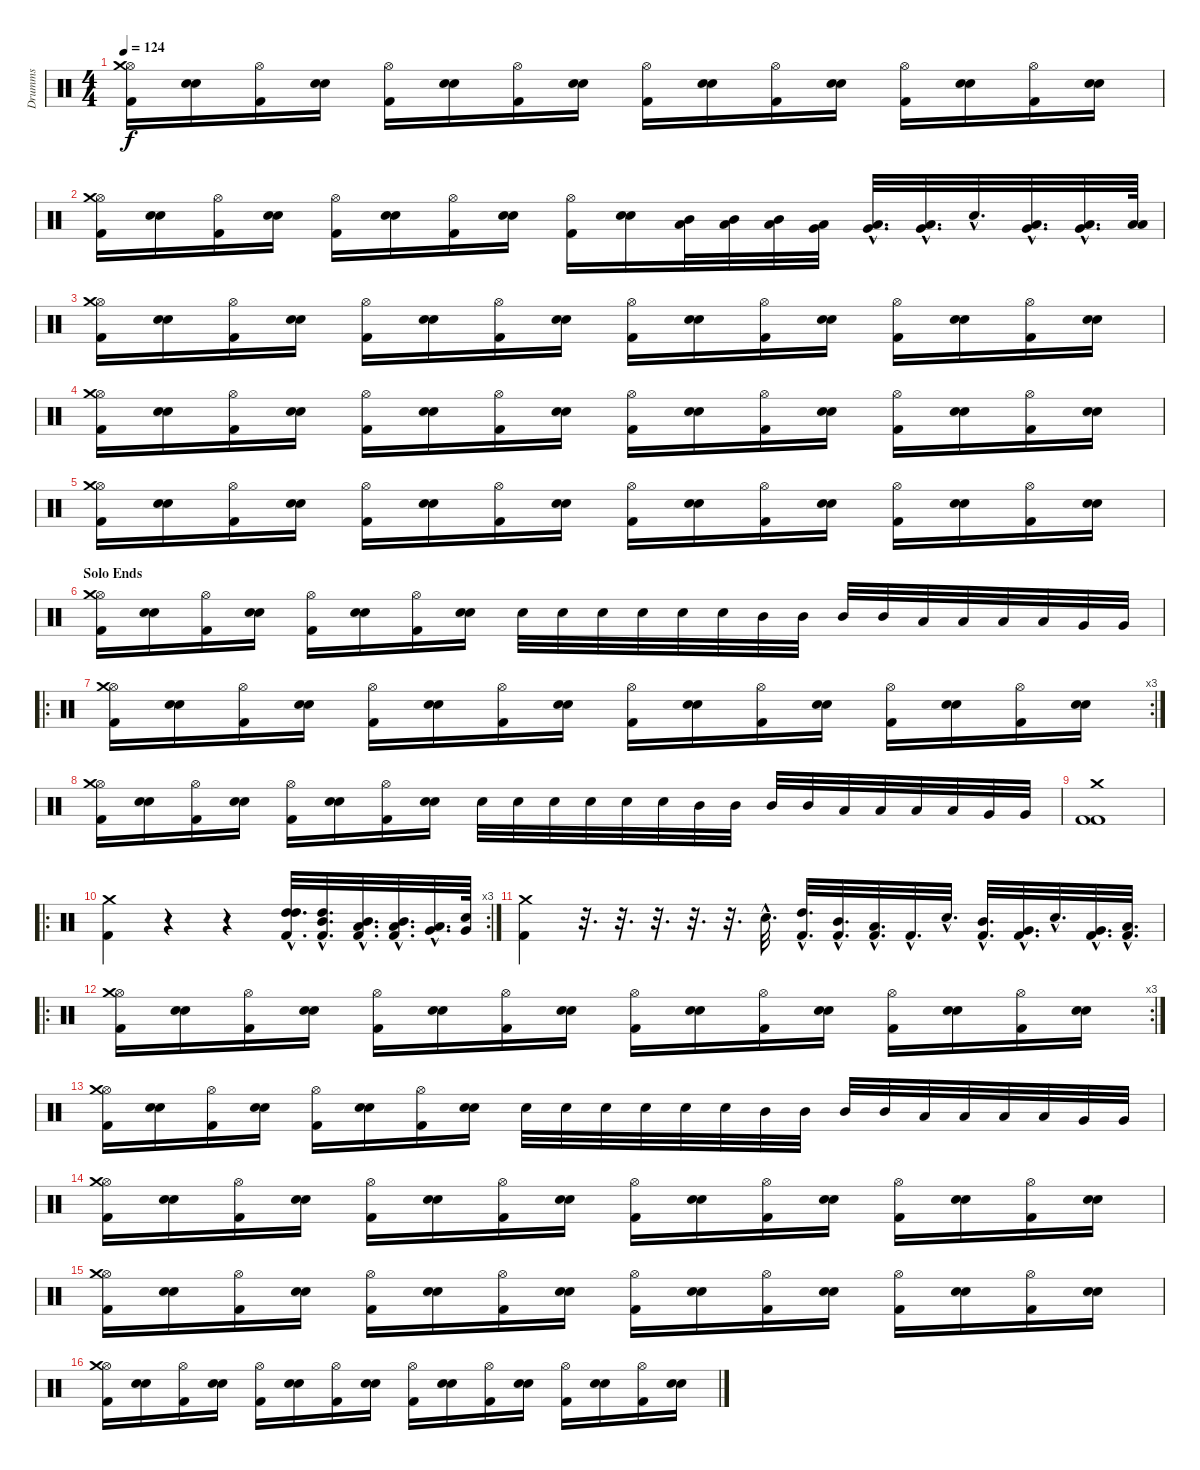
\track ("Drumms" "Drumms") {instrument percussion}
\staff {score}
\articulation defaults
\ts (4 4)
\tempo 124
\clef neutral
\ks c
("Kick (hit) 2" "Hi-Hat (open)" "Crash medium (hit)").16{dy f} ("Snare (hit) 2" "Snare (hit) 2").16 ("Kick (hit) 2" "Hi-Hat (open)").16 ("Snare (hit) 2" "Snare (hit) 2").16 ("Kick (hit) 2" "Hi-Hat (open)").16 ("Snare (hit) 2" "Snare (hit) 2").16 ("Kick (hit) 2" "Hi-Hat (open)").16 ("Snare (hit) 2" "Snare (hit) 2").16 ("Kick (hit) 2" "Hi-Hat (open)").16 ("Snare (hit) 2" "Snare (hit) 2").16 ("Kick (hit) 2" "Hi-Hat (open)").16 ("Snare (hit) 2" "Snare (hit) 2").16 ("Kick (hit) 2" "Hi-Hat (open)").16 ("Snare (hit) 2" "Snare (hit) 2").16 ("Kick (hit) 2" "Hi-Hat (open)").16 ("Snare (hit) 2" "Snare (hit) 2").16 |
("Kick (hit) 2" "Hi-Hat (open)" "Crash medium (hit)").16 ("Snare (hit) 2" "Snare (hit) 2").16 ("Kick (hit) 2" "Hi-Hat (open)").16 ("Snare (hit) 2" "Snare (hit) 2").16 ("Kick (hit) 2" "Hi-Hat (open)").16 ("Snare (hit) 2" "Snare (hit) 2").16 ("Kick (hit) 2" "Hi-Hat (open)").16 ("Snare (hit) 2" "Snare (hit) 2").16 ("Kick (hit) 2" "Hi-Hat (open)").16 ("Snare (hit) 2" "Snare (hit) 2").16 ("Mid Tom (hit)" "Low Tom (hit)").32 ("Mid Tom (hit)" "Low Tom (hit)").32 ("Mid Tom (hit)" "Low Tom (hit)").32 ("Low Tom (hit)" "Very Low Tom (hit)").32 ("Low Tom (hit)"{hac} "Very Low Tom (hit)"{hac}).32{d} ("Low Tom (hit)"{hac} "Very Low Tom (hit)"{hac}).32{d} "Snare (hit) 2"{hac}.32{d} ("Very Low Tom (hit)"{hac} "Low Floor Tom (hit)"{hac}).32{d} ("Very Low Tom (hit)"{hac} "Low Floor Tom (hit)"{hac}).32{d} ("Low Floor Tom (hit)" "Low Floor Tom (hit)").64 |
("Kick (hit) 2" "Hi-Hat (open)" "Crash medium (hit)").16 ("Snare (hit) 2" "Snare (hit) 2").16 ("Kick (hit) 2" "Hi-Hat (open)").16 ("Snare (hit) 2" "Snare (hit) 2").16 ("Kick (hit) 2" "Hi-Hat (open)").16 ("Snare (hit) 2" "Snare (hit) 2").16 ("Kick (hit) 2" "Hi-Hat (open)").16 ("Snare (hit) 2" "Snare (hit) 2").16 ("Kick (hit) 2" "Hi-Hat (open)").16 ("Snare (hit) 2" "Snare (hit) 2").16 ("Kick (hit) 2" "Hi-Hat (open)").16 ("Snare (hit) 2" "Snare (hit) 2").16 ("Kick (hit) 2" "Hi-Hat (open)").16 ("Snare (hit) 2" "Snare (hit) 2").16 ("Kick (hit) 2" "Hi-Hat (open)").16 ("Snare (hit) 2" "Snare (hit) 2").16 |
("Kick (hit) 2" "Hi-Hat (open)" "Crash medium (hit)").16 ("Snare (hit) 2" "Snare (hit) 2").16 ("Kick (hit) 2" "Hi-Hat (open)").16 ("Snare (hit) 2" "Snare (hit) 2").16 ("Kick (hit) 2" "Hi-Hat (open)").16 ("Snare (hit) 2" "Snare (hit) 2").16 ("Kick (hit) 2" "Hi-Hat (open)").16 ("Snare (hit) 2" "Snare (hit) 2").16 ("Kick (hit) 2" "Hi-Hat (open)").16 ("Snare (hit) 2" "Snare (hit) 2").16 ("Kick (hit) 2" "Hi-Hat (open)").16 ("Snare (hit) 2" "Snare (hit) 2").16 ("Kick (hit) 2" "Hi-Hat (open)").16 ("Snare (hit) 2" "Snare (hit) 2").16 ("Kick (hit) 2" "Hi-Hat (open)").16 ("Snare (hit) 2" "Snare (hit) 2").16 |
("Kick (hit) 2" "Hi-Hat (open)" "Crash medium (hit)").16 ("Snare (hit) 2" "Snare (hit) 2").16 ("Kick (hit) 2" "Hi-Hat (open)").16 ("Snare (hit) 2" "Snare (hit) 2").16 ("Kick (hit) 2" "Hi-Hat (open)").16 ("Snare (hit) 2" "Snare (hit) 2").16 ("Kick (hit) 2" "Hi-Hat (open)").16 ("Snare (hit) 2" "Snare (hit) 2").16 ("Kick (hit) 2" "Hi-Hat (open)").16 ("Snare (hit) 2" "Snare (hit) 2").16 ("Kick (hit) 2" "Hi-Hat (open)").16 ("Snare (hit) 2" "Snare (hit) 2").16 ("Kick (hit) 2" "Hi-Hat (open)").16 ("Snare (hit) 2" "Snare (hit) 2").16 ("Kick (hit) 2" "Hi-Hat (open)").16 ("Snare (hit) 2" "Snare (hit) 2").16 |
\section ("" "Solo Ends")
("Kick (hit) 2" "Hi-Hat (open)" "Crash medium (hit)").16 ("Snare (hit) 2" "Snare (hit) 2").16 ("Kick (hit) 2" "Hi-Hat (open)").16 ("Snare (hit) 2" "Snare (hit) 2").16 ("Kick (hit) 2" "Hi-Hat (open)").16 ("Snare (hit) 2" "Snare (hit) 2").16 ("Kick (hit) 2" "Hi-Hat (open)").16 ("Snare (hit) 2" "Snare (hit) 2").16 "Snare (hit) 2".32 "Snare (hit) 2".32 "Snare (hit) 2".32 "Snare (hit) 2".32 "Snare (hit) 2".32 "Snare (hit) 2".32 "Mid Tom (hit)".32 "Mid Tom (hit)".32 "Mid Tom (hit)".32 "Mid Tom (hit)".32 "Low Tom (hit)".32 "Low Tom (hit)".32 "Low Tom (hit)".32 "Low Tom (hit)".32 "Very Low Tom (hit)".32 "Very Low Tom (hit)".32 |
\ro
\rc 3
("Kick (hit) 2" "Hi-Hat (open)" "Crash medium (hit)").16 ("Snare (hit) 2" "Snare (hit) 2").16 ("Kick (hit) 2" "Hi-Hat (open)").16 ("Snare (hit) 2" "Snare (hit) 2").16 ("Kick (hit) 2" "Hi-Hat (open)").16 ("Snare (hit) 2" "Snare (hit) 2").16 ("Kick (hit) 2" "Hi-Hat (open)").16 ("Snare (hit) 2" "Snare (hit) 2").16 ("Kick (hit) 2" "Hi-Hat (open)").16 ("Snare (hit) 2" "Snare (hit) 2").16 ("Kick (hit) 2" "Hi-Hat (open)").16 ("Snare (hit) 2" "Snare (hit) 2").16 ("Kick (hit) 2" "Hi-Hat (open)").16 ("Snare (hit) 2" "Snare (hit) 2").16 ("Kick (hit) 2" "Hi-Hat (open)").16 ("Snare (hit) 2" "Snare (hit) 2").16 |
("Kick (hit) 2" "Hi-Hat (open)" "Crash medium (hit)").16 ("Snare (hit) 2" "Snare (hit) 2").16 ("Kick (hit) 2" "Hi-Hat (open)").16 ("Snare (hit) 2" "Snare (hit) 2").16 ("Kick (hit) 2" "Hi-Hat (open)").16 ("Snare (hit) 2" "Snare (hit) 2").16 ("Kick (hit) 2" "Hi-Hat (open)").16 ("Snare (hit) 2" "Snare (hit) 2").16 "Snare (hit) 2".32 "Snare (hit) 2".32 "Snare (hit) 2".32 "Snare (hit) 2".32 "Snare (hit) 2".32 "Snare (hit) 2".32 "Mid Tom (hit)".32 "Mid Tom (hit)".32 "Mid Tom (hit)".32 "Mid Tom (hit)".32 "Low Tom (hit)".32 "Low Tom (hit)".32 "Low Tom (hit)".32 "Low Tom (hit)".32 "Very Low Tom (hit)".32 "Very Low Tom (hit)".32 |
("Kick (hit) 2" "Kick (hit) 2" "Crash medium (hit)").1 |
\ro
\rc 3
("Kick (hit) 2" "Crash medium (hit)").4 r.4 r.4 ("Kick (hit) 2"{hac} "High Tom (hit)"{hac} "High Tom (hit)"{hac}).32{d} ("Kick (hit) 2"{hac} "Mid Tom (hit)"{hac} "High Tom (hit)"{hac}).32{d} ("Kick (hit) 2"{hac} "Low Tom (hit)"{hac} "Mid Tom (hit)"{hac}).32{d} ("Kick (hit) 2"{hac} "Low Tom (hit)"{hac} "Mid Tom (hit)"{hac}).32{d} ("Low Tom (hit)"{hac} "Very Low Tom (hit)"{hac}).32{d} ("Metronome (bell)" "Very Low Tom (hit)").64 |
("Kick (hit) 2" "Crash medium (hit)").4 r.32{d} r.32{d} r.32{d} r.32{d} r.32{d} "Snare (hit) 2"{hac}.32{d} ("High Tom (hit)"{hac} "Kick (hit) 2"{hac}).32{d} ("Mid Tom (hit)"{hac} "Kick (hit) 2"{hac}).32{d} ("Low Tom (hit)"{hac} "Kick (hit) 2"{hac}).32{d} "Kick (hit) 2"{hac}.32{d} "Snare (hit) 2"{hac}.32{d} ("Mid Tom (hit)"{hac} "Kick (hit) 2"{hac}).32{d} ("Very Low Tom (hit)"{hac} "Kick (hit) 2"{hac}).32{d} "Snare (hit) 2"{hac}.32{d} ("Very Low Tom (hit)"{hac} "Kick (hit) 2"{hac}).32{d} ("Low Floor Tom (hit)"{hac} "Kick (hit) 2"{hac}).32{d} |
\ro
\rc 3
("Kick (hit) 2" "Hi-Hat (open)" "Crash medium (hit)").16 ("Snare (hit) 2" "Snare (hit) 2").16 ("Kick (hit) 2" "Hi-Hat (open)").16 ("Snare (hit) 2" "Snare (hit) 2").16 ("Kick (hit) 2" "Hi-Hat (open)").16 ("Snare (hit) 2" "Snare (hit) 2").16 ("Kick (hit) 2" "Hi-Hat (open)").16 ("Snare (hit) 2" "Snare (hit) 2").16 ("Kick (hit) 2" "Hi-Hat (open)").16 ("Snare (hit) 2" "Snare (hit) 2").16 ("Kick (hit) 2" "Hi-Hat (open)").16 ("Snare (hit) 2" "Snare (hit) 2").16 ("Kick (hit) 2" "Hi-Hat (open)").16 ("Snare (hit) 2" "Snare (hit) 2").16 ("Kick (hit) 2" "Hi-Hat (open)").16 ("Snare (hit) 2" "Snare (hit) 2").16 |
("Kick (hit) 2" "Hi-Hat (open)" "Crash medium (hit)").16 ("Snare (hit) 2" "Snare (hit) 2").16 ("Kick (hit) 2" "Hi-Hat (open)").16 ("Snare (hit) 2" "Snare (hit) 2").16 ("Kick (hit) 2" "Hi-Hat (open)").16 ("Snare (hit) 2" "Snare (hit) 2").16 ("Kick (hit) 2" "Hi-Hat (open)").16 ("Snare (hit) 2" "Snare (hit) 2").16 "Snare (hit) 2".32 "Snare (hit) 2".32 "Snare (hit) 2".32 "Snare (hit) 2".32 "Snare (hit) 2".32 "Snare (hit) 2".32 "Mid Tom (hit)".32 "Mid Tom (hit)".32 "Mid Tom (hit)".32 "Mid Tom (hit)".32 "Low Tom (hit)".32 "Low Tom (hit)".32 "Low Tom (hit)".32 "Low Tom (hit)".32 "Very Low Tom (hit)".32 "Very Low Tom (hit)".32 |
("Kick (hit) 2" "Hi-Hat (open)" "Crash medium (hit)").16 ("Snare (hit) 2" "Snare (hit) 2").16 ("Kick (hit) 2" "Hi-Hat (open)").16 ("Snare (hit) 2" "Snare (hit) 2").16 ("Kick (hit) 2" "Hi-Hat (open)").16 ("Snare (hit) 2" "Snare (hit) 2").16 ("Kick (hit) 2" "Hi-Hat (open)").16 ("Snare (hit) 2" "Snare (hit) 2").16 ("Kick (hit) 2" "Hi-Hat (open)").16 ("Snare (hit) 2" "Snare (hit) 2").16 ("Kick (hit) 2" "Hi-Hat (open)").16 ("Snare (hit) 2" "Snare (hit) 2").16 ("Kick (hit) 2" "Hi-Hat (open)").16 ("Snare (hit) 2" "Snare (hit) 2").16 ("Kick (hit) 2" "Hi-Hat (open)").16 ("Snare (hit) 2" "Snare (hit) 2").16 |
("Kick (hit) 2" "Hi-Hat (open)" "Crash medium (hit)").16 ("Snare (hit) 2" "Snare (hit) 2").16 ("Kick (hit) 2" "Hi-Hat (open)").16 ("Snare (hit) 2" "Snare (hit) 2").16 ("Kick (hit) 2" "Hi-Hat (open)").16 ("Snare (hit) 2" "Snare (hit) 2").16 ("Kick (hit) 2" "Hi-Hat (open)").16 ("Snare (hit) 2" "Snare (hit) 2").16 ("Kick (hit) 2" "Hi-Hat (open)").16 ("Snare (hit) 2" "Snare (hit) 2").16 ("Kick (hit) 2" "Hi-Hat (open)").16 ("Snare (hit) 2" "Snare (hit) 2").16 ("Kick (hit) 2" "Hi-Hat (open)").16 ("Snare (hit) 2" "Snare (hit) 2").16 ("Kick (hit) 2" "Hi-Hat (open)").16 ("Snare (hit) 2" "Snare (hit) 2").16 |
("Kick (hit) 2" "Hi-Hat (open)" "Crash medium (hit)").16 ("Snare (hit) 2" "Snare (hit) 2").16 ("Kick (hit) 2" "Hi-Hat (open)").16 ("Snare (hit) 2" "Snare (hit) 2").16 ("Kick (hit) 2" "Hi-Hat (open)").16 ("Snare (hit) 2" "Snare (hit) 2").16 ("Kick (hit) 2" "Hi-Hat (open)").16 ("Snare (hit) 2" "Snare (hit) 2").16 ("Kick (hit) 2" "Hi-Hat (open)").16 ("Snare (hit) 2" "Snare (hit) 2").16 ("Kick (hit) 2" "Hi-Hat (open)").16 ("Snare (hit) 2" "Snare (hit) 2").16 ("Kick (hit) 2" "Hi-Hat (open)").16 ("Snare (hit) 2" "Snare (hit) 2").16 ("Kick (hit) 2" "Hi-Hat (open)").16 ("Snare (hit) 2" "Snare (hit) 2").16
